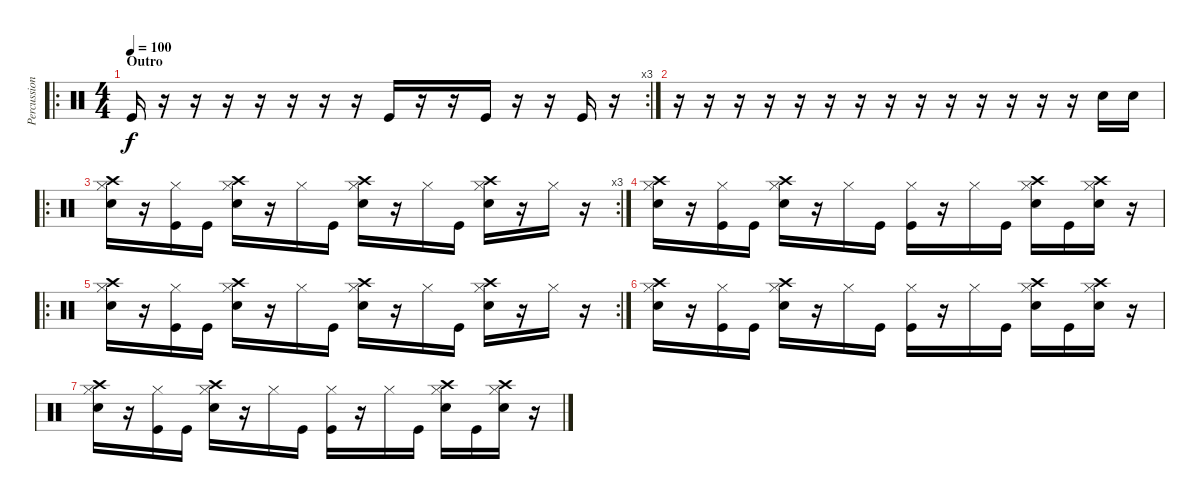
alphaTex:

\track ("Percussion" "Percussion") {instrument percussion}
\staff {score}
\articulation defaults
\ro
\rc 3
\ts (4 4)
\section ("" "Outro")
\tempo 100
\clef neutral
\ks c "Kick (hit)".16{dy f}
r.16 r.16 r.16 r.16 r.16 r.16 r.16 "Kick (hit)".16 r.16 r.16 "Kick (hit)".16 r.16 r.16 "Kick (hit)".16 r.16 |
r.16 r.16 r.16 r.16 r.16 r.16 r.16 r.16 r.16 r.16 r.16 r.16 r.16 r.16 "Electric Snare (hit)".16 "Electric Snare (hit)".16 |
\ro
\rc 3
("Hi-Hat (closed)" "Crash high (hit)" "Electric Snare (hit)").16 r.16 ("Hi-Hat (closed)" "Kick (hit)").16 "Kick (hit)".16 ("Hi-Hat (closed)" "Crash high (hit)" "Electric Snare (hit)").16 r.16 "Hi-Hat (closed)".16 "Kick (hit)".16 ("Hi-Hat (closed)" "Crash high (hit)" "Electric Snare (hit)").16 r.16 "Hi-Hat (closed)".16 "Kick (hit)".16 ("Hi-Hat (closed)" "Crash high (hit)" "Electric Snare (hit)").16 r.16 "Hi-Hat (closed)".16 r.16 |
("Hi-Hat (closed)" "Crash high (hit)" "Electric Snare (hit)").16 r.16 ("Hi-Hat (closed)" "Kick (hit)").16 "Kick (hit)".16 ("Hi-Hat (closed)" "Crash high (hit)" "Electric Snare (hit)").16 r.16 "Hi-Hat (closed)".16 "Kick (hit)".16 ("Hi-Hat (closed)" "Kick (hit)").16 r.16 "Hi-Hat (closed)".16 "Kick (hit)".16 ("Hi-Hat (closed)" "Crash high (hit)" "Electric Snare (hit)").16 "Kick (hit)".16 ("Hi-Hat (closed)" "Crash high (hit)" "Electric Snare (hit)").16 r.16 |
\ro
\rc 2
("Hi-Hat (closed)" "Crash high (hit)" "Electric Snare (hit)").16 r.16 ("Hi-Hat (closed)" "Kick (hit)").16 "Kick (hit)".16 ("Hi-Hat (closed)" "Crash high (hit)" "Electric Snare (hit)").16 r.16 "Hi-Hat (closed)".16 "Kick (hit)".16 ("Hi-Hat (closed)" "Crash high (hit)" "Electric Snare (hit)").16 r.16 "Hi-Hat (closed)".16 "Kick (hit)".16 ("Hi-Hat (closed)" "Crash high (hit)" "Electric Snare (hit)").16 r.16 "Hi-Hat (closed)".16 r.16 |
("Hi-Hat (closed)" "Crash high (hit)" "Electric Snare (hit)").16 r.16 ("Hi-Hat (closed)" "Kick (hit)").16 "Kick (hit)".16 ("Hi-Hat (closed)" "Crash high (hit)" "Electric Snare (hit)").16 r.16 "Hi-Hat (closed)".16 "Kick (hit)".16 ("Hi-Hat (closed)" "Kick (hit)").16 r.16 "Hi-Hat (closed)".16 "Kick (hit)".16 ("Hi-Hat (closed)" "Crash high (hit)" "Electric Snare (hit)").16 "Kick (hit)".16 ("Hi-Hat (closed)" "Crash high (hit)" "Electric Snare (hit)").16 r.16 |
("Hi-Hat (closed)" "Crash high (hit)" "Electric Snare (hit)").16 r.16 ("Hi-Hat (closed)" "Kick (hit)").16 "Kick (hit)".16 ("Hi-Hat (closed)" "Crash high (hit)" "Electric Snare (hit)").16 r.16 "Hi-Hat (closed)".16 "Kick (hit)".16 ("Hi-Hat (closed)" "Kick (hit)").16 r.16 "Hi-Hat (closed)".16 "Kick (hit)".16 ("Hi-Hat (closed)" "Crash high (hit)" "Electric Snare (hit)").16 "Kick (hit)".16 ("Hi-Hat (closed)" "Crash high (hit)" "Electric Snare (hit)").16 r.16
